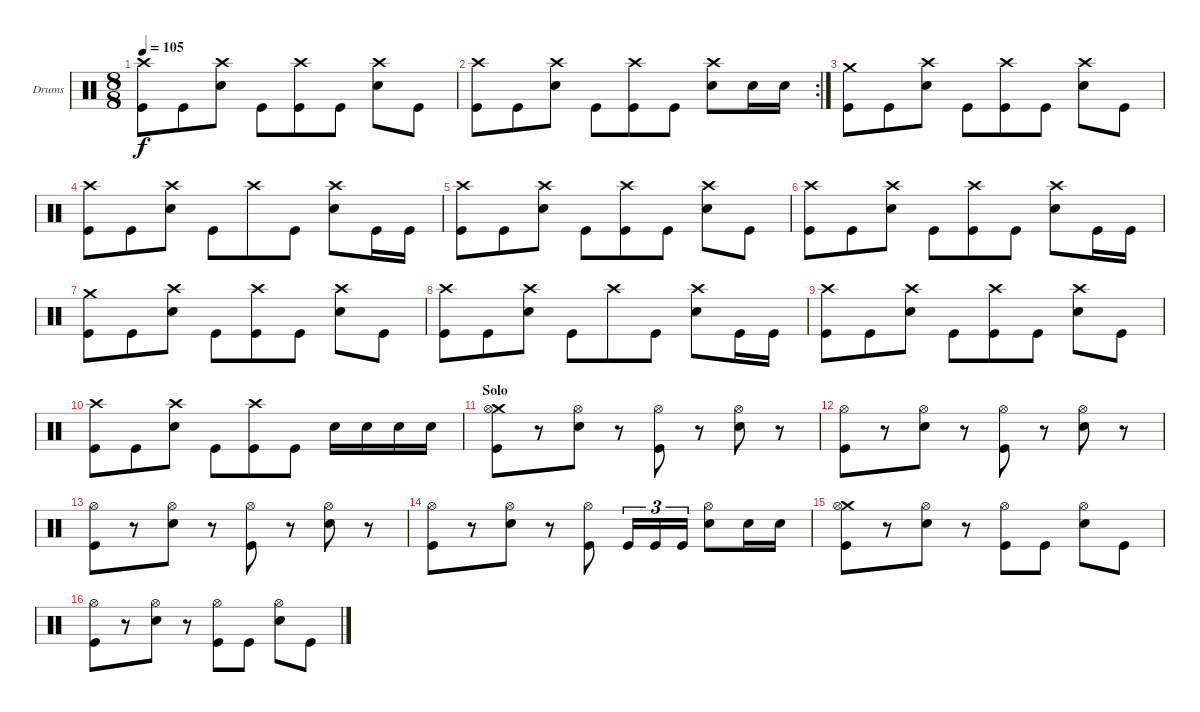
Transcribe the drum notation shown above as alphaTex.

\bracketExtendMode groupsimilarinstruments
\firstSystemTrackNameOrientation horizontal
\otherSystemsTrackNameOrientation horizontal
\track ("Drumkit" "Drums") {instrument percussion}
\staff {score}
\articulation defaults
\ts (8 8)
\tempo 105
\clef neutral
\ks c
("Crash high (hit)" "Kick (hit)").8{dy f} "Kick (hit)".8 ("Crash high (hit)" "Snare (hit) 2").8 "Kick (hit)".8 ("Crash high (hit)" "Kick (hit)").8 "Kick (hit)".8 ("Crash high (hit)" "Snare (hit) 2").8 "Kick (hit)".8 |
\rc 2
("Crash high (hit)" "Kick (hit)").8 "Kick (hit)".8 ("Crash high (hit)" "Snare (hit) 2").8 "Kick (hit)".8 ("Crash high (hit)" "Kick (hit)").8 "Kick (hit)".8 ("Crash high (hit)" "Snare (hit) 2").8 "Snare (hit) 2".16 "Snare (hit) 2".16 |
("Crash medium (hit)" "Kick (hit)").8 "Kick (hit)".8 ("Crash high (hit)" "Snare (hit) 2").8 "Kick (hit)".8 ("Crash high (hit)" "Kick (hit)").8 "Kick (hit)".8 ("Crash high (hit)" "Snare (hit) 2").8 "Kick (hit)".8 |
("Crash high (hit)" "Kick (hit)").8 "Kick (hit)".8 ("Crash high (hit)" "Snare (hit) 2").8 "Kick (hit)".8 "Crash high (hit)".8 "Kick (hit)".8 ("Crash high (hit)" "Snare (hit) 2").8 "Kick (hit)".16 "Kick (hit)".16 |
("Crash high (hit)" "Kick (hit)").8 "Kick (hit)".8 ("Crash high (hit)" "Snare (hit) 2").8 "Kick (hit)".8 ("Crash high (hit)" "Kick (hit)").8 "Kick (hit)".8 ("Crash high (hit)" "Snare (hit) 2").8 "Kick (hit)".8 |
("Crash high (hit)" "Kick (hit)").8 "Kick (hit)".8 ("Crash high (hit)" "Snare (hit) 2").8 "Kick (hit)".8 ("Crash high (hit)" "Kick (hit)").8 "Kick (hit)".8 ("Crash high (hit)" "Snare (hit) 2").8 "Kick (hit)".16 "Kick (hit)".16 |
("Crash medium (hit)" "Kick (hit)").8 "Kick (hit)".8 ("Crash high (hit)" "Snare (hit) 2").8 "Kick (hit)".8 ("Crash high (hit)" "Kick (hit)").8 "Kick (hit)".8 ("Crash high (hit)" "Snare (hit) 2").8 "Kick (hit)".8 |
("Crash high (hit)" "Kick (hit)").8 "Kick (hit)".8 ("Crash high (hit)" "Snare (hit) 2").8 "Kick (hit)".8 "Crash high (hit)".8 "Kick (hit)".8 ("Crash high (hit)" "Snare (hit) 2").8 "Kick (hit)".16 "Kick (hit)".16 |
("Crash high (hit)" "Kick (hit)").8 "Kick (hit)".8 ("Crash high (hit)" "Snare (hit) 2").8 "Kick (hit)".8 ("Crash high (hit)" "Kick (hit)").8 "Kick (hit)".8 ("Crash high (hit)" "Snare (hit) 2").8 "Kick (hit)".8 |
("Crash high (hit)" "Kick (hit)").8 "Kick (hit)".8 ("Crash high (hit)" "Snare (hit) 2").8 "Kick (hit)".8 ("Crash high (hit)" "Kick (hit)").8 "Kick (hit)".8 "Snare (hit) 2".16 "Snare (hit) 2".16 "Snare (hit) 2".16 "Snare (hit) 2".16 |
\section ("" "Solo")
("Crash medium (hit)" "Hi-Hat (open)" "Kick (hit)").8 r.8 ("Hi-Hat (open)" "Snare (hit) 2").8 r.8 ("Hi-Hat (open)" "Kick (hit)").8 r.8 ("Hi-Hat (open)" "Snare (hit) 2").8 r.8 |
("Hi-Hat (open)" "Kick (hit)").8 r.8 ("Hi-Hat (open)" "Snare (hit) 2").8 r.8 ("Hi-Hat (open)" "Kick (hit)").8 r.8 ("Hi-Hat (open)" "Snare (hit) 2").8 r.8 |
("Hi-Hat (open)" "Kick (hit)").8 r.8 ("Hi-Hat (open)" "Snare (hit) 2").8 r.8 ("Hi-Hat (open)" "Kick (hit)").8 r.8 ("Hi-Hat (open)" "Snare (hit) 2").8 r.8 |
("Hi-Hat (open)" "Kick (hit)").8 r.8 ("Hi-Hat (open)" "Snare (hit) 2").8 r.8 ("Hi-Hat (open)" "Kick (hit)").8 "Kick (hit)".16{tu (3 2)} "Kick (hit)".16{tu (3 2)} "Kick (hit)".16{tu (3 2)} ("Hi-Hat (open)" "Snare (hit) 2").8 "Snare (hit) 2".16 "Snare (hit) 2".16 |
("Crash medium (hit)" "Hi-Hat (open)" "Kick (hit)").8 r.8 ("Hi-Hat (open)" "Snare (hit) 2").8 r.8 ("Hi-Hat (open)" "Kick (hit)").8 "Kick (hit)".8 ("Hi-Hat (open)" "Snare (hit) 2").8 "Kick (hit)".8 |
("Hi-Hat (open)" "Kick (hit)").8 r.8 ("Hi-Hat (open)" "Snare (hit) 2").8 r.8 ("Hi-Hat (open)" "Kick (hit)").8 "Kick (hit)".8 ("Hi-Hat (open)" "Snare (hit) 2").8 "Kick (hit)".8
